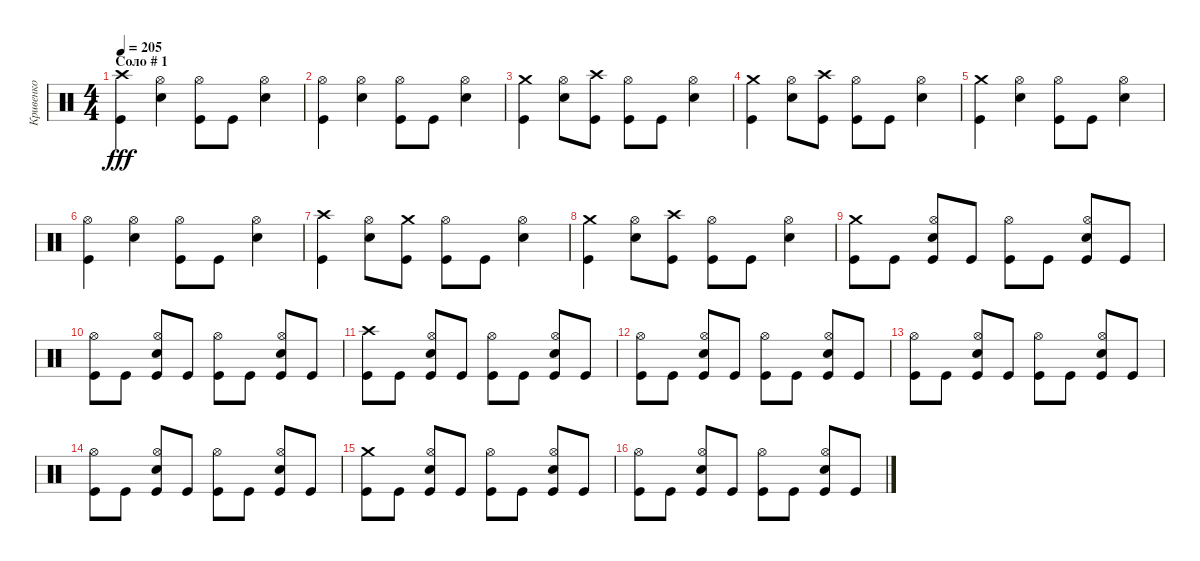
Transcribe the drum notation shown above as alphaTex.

\track ("Кривенко" "Кривенко") {instrument percussion}
\staff {score}
\articulation defaults
\ts (4 4)
\section ("" "Соло # 1")
\tempo 205
\clef neutral
\ks c
("Crash high (hit)" "Kick (hit)").4{dy fff} ("Hi-Hat (open)" "Electric Snare (hit)").4 ("Hi-Hat (open)" "Kick (hit)").8 "Kick (hit)".8 ("Hi-Hat (open)" "Electric Snare (hit)").4 |
("Hi-Hat (open)" "Kick (hit)").4 ("Hi-Hat (open)" "Electric Snare (hit)").4 ("Hi-Hat (open)" "Kick (hit)").8 "Kick (hit)".8 ("Hi-Hat (open)" "Electric Snare (hit)").4 |
("Crash medium (hit)" "Kick (hit)").4 ("Hi-Hat (open)" "Electric Snare (hit)").8 ("Crash high (hit)" "Kick (hit)").8 ("Hi-Hat (open)" "Kick (hit)").8 "Kick (hit)".8 ("Hi-Hat (open)" "Electric Snare (hit)").4 |
("Crash medium (hit)" "Kick (hit)").4 ("Hi-Hat (open)" "Electric Snare (hit)").8 ("Crash high (hit)" "Kick (hit)").8 ("Hi-Hat (open)" "Kick (hit)").8 "Kick (hit)".8 ("Hi-Hat (open)" "Electric Snare (hit)").4 |
("Crash medium (hit)" "Kick (hit)").4 ("Hi-Hat (open)" "Electric Snare (hit)").4 ("Hi-Hat (open)" "Kick (hit)").8 "Kick (hit)".8 ("Hi-Hat (open)" "Electric Snare (hit)").4 |
("Hi-Hat (open)" "Kick (hit)").4 ("Hi-Hat (open)" "Electric Snare (hit)").4 ("Hi-Hat (open)" "Kick (hit)").8 "Kick (hit)".8 ("Hi-Hat (open)" "Electric Snare (hit)").4 |
("Crash high (hit)" "Kick (hit)").4 ("Hi-Hat (open)" "Electric Snare (hit)").8 ("Crash medium (hit)" "Kick (hit)").8 ("Hi-Hat (open)" "Kick (hit)").8 "Kick (hit)".8 ("Hi-Hat (open)" "Electric Snare (hit)").4 |
("Crash medium (hit)" "Kick (hit)").4 ("Hi-Hat (open)" "Electric Snare (hit)").8 ("Crash high (hit)" "Kick (hit)").8 ("Hi-Hat (open)" "Kick (hit)").8 "Kick (hit)".8 ("Hi-Hat (open)" "Electric Snare (hit)").4 |
("Crash medium (hit)" "Kick (hit)").8 "Kick (hit)".8 ("Hi-Hat (open)" "Electric Snare (hit)" "Kick (hit)").8 "Kick (hit)".8 ("Hi-Hat (open)" "Kick (hit)").8 "Kick (hit)".8 ("Hi-Hat (open)" "Electric Snare (hit)" "Kick (hit)").8 "Kick (hit)".8 |
("Hi-Hat (open)" "Kick (hit)").8 "Kick (hit)".8 ("Hi-Hat (open)" "Electric Snare (hit)" "Kick (hit)").8 "Kick (hit)".8 ("Hi-Hat (open)" "Kick (hit)").8 "Kick (hit)".8 ("Hi-Hat (open)" "Electric Snare (hit)" "Kick (hit)").8 "Kick (hit)".8 |
("Crash high (hit)" "Kick (hit)").8 "Kick (hit)".8 ("Hi-Hat (open)" "Electric Snare (hit)" "Kick (hit)").8 "Kick (hit)".8 ("Hi-Hat (open)" "Kick (hit)").8 "Kick (hit)".8 ("Hi-Hat (open)" "Electric Snare (hit)" "Kick (hit)").8 "Kick (hit)".8 |
("Hi-Hat (open)" "Kick (hit)").8 "Kick (hit)".8 ("Hi-Hat (open)" "Electric Snare (hit)" "Kick (hit)").8 "Kick (hit)".8 ("Hi-Hat (open)" "Kick (hit)").8 "Kick (hit)".8 ("Hi-Hat (open)" "Electric Snare (hit)" "Kick (hit)").8 "Kick (hit)".8 |
("Hi-Hat (open)" "Kick (hit)").8 "Kick (hit)".8 ("Hi-Hat (open)" "Electric Snare (hit)" "Kick (hit)").8 "Kick (hit)".8 ("Hi-Hat (open)" "Kick (hit)").8 "Kick (hit)".8 ("Hi-Hat (open)" "Electric Snare (hit)" "Kick (hit)").8 "Kick (hit)".8 |
("Hi-Hat (open)" "Kick (hit)").8 "Kick (hit)".8 ("Hi-Hat (open)" "Electric Snare (hit)" "Kick (hit)").8 "Kick (hit)".8 ("Hi-Hat (open)" "Kick (hit)").8 "Kick (hit)".8 ("Hi-Hat (open)" "Electric Snare (hit)" "Kick (hit)").8 "Kick (hit)".8 |
("Crash medium (hit)" "Kick (hit)").8 "Kick (hit)".8 ("Hi-Hat (open)" "Electric Snare (hit)" "Kick (hit)").8 "Kick (hit)".8 ("Hi-Hat (open)" "Kick (hit)").8 "Kick (hit)".8 ("Hi-Hat (open)" "Electric Snare (hit)" "Kick (hit)").8 "Kick (hit)".8 |
("Hi-Hat (open)" "Kick (hit)").8 "Kick (hit)".8 ("Hi-Hat (open)" "Electric Snare (hit)" "Kick (hit)").8 "Kick (hit)".8 ("Hi-Hat (open)" "Kick (hit)").8 "Kick (hit)".8 ("Hi-Hat (open)" "Electric Snare (hit)" "Kick (hit)").8 "Kick (hit)".8
